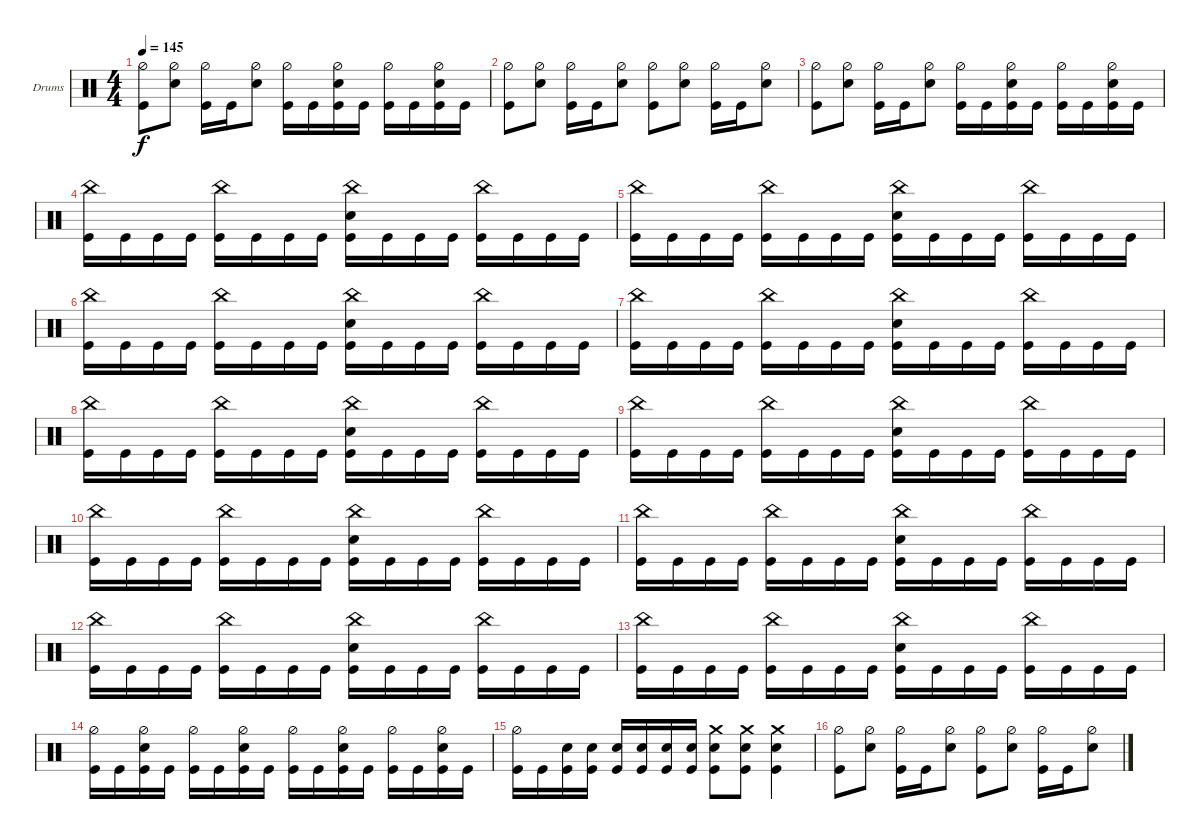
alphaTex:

\bracketExtendMode groupsimilarinstruments
\firstSystemTrackNameOrientation horizontal
\otherSystemsTrackNameOrientation horizontal
\track ("Drumkit" "Drums") {instrument percussion}
\staff {score}
\articulation defaults
\ts (4 4)
\tempo 145
\clef neutral
\ks c
("Kick (hit)" "Hi-Hat (half)").8{dy f} ("Snare (hit) 2" "Hi-Hat (half)").8 ("Kick (hit)" "Hi-Hat (half)").16 "Kick (hit)".16 ("Snare (hit) 2" "Hi-Hat (half)").8 ("Kick (hit)" "Hi-Hat (half)").16 "Kick (hit)".16 ("Snare (hit) 2" "Kick (hit)" "Hi-Hat (half)").16 "Kick (hit)".16 ("Kick (hit)" "Hi-Hat (half)").16 "Kick (hit)".16 ("Snare (hit) 2" "Kick (hit)" "Hi-Hat (half)").16 "Kick (hit)".16 |
("Kick (hit)" "Hi-Hat (half)").8 ("Snare (hit) 2" "Hi-Hat (half)").8 ("Kick (hit)" "Hi-Hat (half)").16 "Kick (hit)".16 ("Snare (hit) 2" "Hi-Hat (half)").8 ("Kick (hit)" "Hi-Hat (half)").8 ("Snare (hit) 2" "Hi-Hat (half)").8 ("Kick (hit)" "Hi-Hat (half)").16 "Kick (hit)".16 ("Snare (hit) 2" "Hi-Hat (half)").8 |
("Kick (hit)" "Hi-Hat (half)").8 ("Snare (hit) 2" "Hi-Hat (half)").8 ("Kick (hit)" "Hi-Hat (half)").16 "Kick (hit)".16 ("Snare (hit) 2" "Hi-Hat (half)").8 ("Kick (hit)" "Hi-Hat (half)").16 "Kick (hit)".16 ("Snare (hit) 2" "Kick (hit)" "Hi-Hat (half)").16 "Kick (hit)".16 ("Kick (hit)" "Hi-Hat (half)").16 "Kick (hit)".16 ("Snare (hit) 2" "Kick (hit)" "Hi-Hat (half)").16 "Kick (hit)".16 |
("Kick (hit)" "China (hit)").16 "Kick (hit)".16 "Kick (hit)".16 "Kick (hit)".16 ("Kick (hit)" "China (hit)").16 "Kick (hit)".16 "Kick (hit)".16 "Kick (hit)".16 ("Snare (hit) 2" "Kick (hit)" "China (hit)").16 "Kick (hit)".16 "Kick (hit)".16 "Kick (hit)".16 ("Kick (hit)" "China (hit)").16 "Kick (hit)".16 "Kick (hit)".16 "Kick (hit)".16 |
("Kick (hit)" "China (hit)").16 "Kick (hit)".16 "Kick (hit)".16 "Kick (hit)".16 ("Kick (hit)" "China (hit)").16 "Kick (hit)".16 "Kick (hit)".16 "Kick (hit)".16 ("Snare (hit) 2" "Kick (hit)" "China (hit)").16 "Kick (hit)".16 "Kick (hit)".16 "Kick (hit)".16 ("Kick (hit)" "China (hit)").16 "Kick (hit)".16 "Kick (hit)".16 "Kick (hit)".16 |
("Kick (hit)" "China (hit)").16 "Kick (hit)".16 "Kick (hit)".16 "Kick (hit)".16 ("Kick (hit)" "China (hit)").16 "Kick (hit)".16 "Kick (hit)".16 "Kick (hit)".16 ("Snare (hit) 2" "Kick (hit)" "China (hit)").16 "Kick (hit)".16 "Kick (hit)".16 "Kick (hit)".16 ("Kick (hit)" "China (hit)").16 "Kick (hit)".16 "Kick (hit)".16 "Kick (hit)".16 |
("Kick (hit)" "China (hit)").16 "Kick (hit)".16 "Kick (hit)".16 "Kick (hit)".16 ("Kick (hit)" "China (hit)").16 "Kick (hit)".16 "Kick (hit)".16 "Kick (hit)".16 ("Snare (hit) 2" "Kick (hit)" "China (hit)").16 "Kick (hit)".16 "Kick (hit)".16 "Kick (hit)".16 ("Kick (hit)" "China (hit)").16 "Kick (hit)".16 "Kick (hit)".16 "Kick (hit)".16 |
("Kick (hit)" "China (hit)").16 "Kick (hit)".16 "Kick (hit)".16 "Kick (hit)".16 ("Kick (hit)" "China (hit)").16 "Kick (hit)".16 "Kick (hit)".16 "Kick (hit)".16 ("Snare (hit) 2" "Kick (hit)" "China (hit)").16 "Kick (hit)".16 "Kick (hit)".16 "Kick (hit)".16 ("Kick (hit)" "China (hit)").16 "Kick (hit)".16 "Kick (hit)".16 "Kick (hit)".16 |
("Kick (hit)" "China (hit)").16 "Kick (hit)".16 "Kick (hit)".16 "Kick (hit)".16 ("Kick (hit)" "China (hit)").16 "Kick (hit)".16 "Kick (hit)".16 "Kick (hit)".16 ("Snare (hit) 2" "Kick (hit)" "China (hit)").16 "Kick (hit)".16 "Kick (hit)".16 "Kick (hit)".16 ("Kick (hit)" "China (hit)").16 "Kick (hit)".16 "Kick (hit)".16 "Kick (hit)".16 |
("Kick (hit)" "China (hit)").16 "Kick (hit)".16 "Kick (hit)".16 "Kick (hit)".16 ("Kick (hit)" "China (hit)").16 "Kick (hit)".16 "Kick (hit)".16 "Kick (hit)".16 ("Snare (hit) 2" "Kick (hit)" "China (hit)").16 "Kick (hit)".16 "Kick (hit)".16 "Kick (hit)".16 ("Kick (hit)" "China (hit)").16 "Kick (hit)".16 "Kick (hit)".16 "Kick (hit)".16 |
("Kick (hit)" "China (hit)").16 "Kick (hit)".16 "Kick (hit)".16 "Kick (hit)".16 ("Kick (hit)" "China (hit)").16 "Kick (hit)".16 "Kick (hit)".16 "Kick (hit)".16 ("Snare (hit) 2" "Kick (hit)" "China (hit)").16 "Kick (hit)".16 "Kick (hit)".16 "Kick (hit)".16 ("Kick (hit)" "China (hit)").16 "Kick (hit)".16 "Kick (hit)".16 "Kick (hit)".16 |
("Kick (hit)" "China (hit)").16 "Kick (hit)".16 "Kick (hit)".16 "Kick (hit)".16 ("Kick (hit)" "China (hit)").16 "Kick (hit)".16 "Kick (hit)".16 "Kick (hit)".16 ("Snare (hit) 2" "Kick (hit)" "China (hit)").16 "Kick (hit)".16 "Kick (hit)".16 "Kick (hit)".16 ("Kick (hit)" "China (hit)").16 "Kick (hit)".16 "Kick (hit)".16 "Kick (hit)".16 |
("Kick (hit)" "China (hit)").16 "Kick (hit)".16 "Kick (hit)".16 "Kick (hit)".16 ("Kick (hit)" "China (hit)").16 "Kick (hit)".16 "Kick (hit)".16 "Kick (hit)".16 ("Snare (hit) 2" "Kick (hit)" "China (hit)").16 "Kick (hit)".16 "Kick (hit)".16 "Kick (hit)".16 ("Kick (hit)" "China (hit)").16 "Kick (hit)".16 "Kick (hit)".16 "Kick (hit)".16 |
("Kick (hit)" "Hi-Hat (half)").16 "Kick (hit)".16 ("Snare (hit) 2" "Kick (hit)" "Hi-Hat (half)").16 "Kick (hit)".16 ("Kick (hit)" "Hi-Hat (half)").16 "Kick (hit)".16 ("Snare (hit) 2" "Kick (hit)" "Hi-Hat (half)").16 "Kick (hit)".16 ("Kick (hit)" "Hi-Hat (half)").16 "Kick (hit)".16 ("Snare (hit) 2" "Kick (hit)" "Hi-Hat (half)").16 "Kick (hit)".16 ("Kick (hit)" "Hi-Hat (half)").16 "Kick (hit)".16 ("Snare (hit) 2" "Kick (hit)" "Hi-Hat (half)").16 "Kick (hit)".16 |
("Kick (hit)" "Hi-Hat (half)").16 "Kick (hit)".16 ("Snare (hit) 2" "Kick (hit)").16 ("Snare (hit) 2" "Kick (hit)").16 ("Snare (hit) 2" "Kick (hit)").16 ("Snare (hit) 2" "Kick (hit)").16 ("Snare (hit) 2" "Kick (hit)").16 ("Snare (hit) 2" "Kick (hit)").16 ("Crash medium (hit)" "Snare (hit) 2" "Kick (hit)").8 ("Crash medium (hit)" "Snare (hit) 2" "Kick (hit)").8 ("Crash medium (hit)" "Snare (hit) 2" "Kick (hit)").4 |
("Kick (hit)" "Hi-Hat (half)").8 ("Snare (hit) 2" "Hi-Hat (half)").8 ("Kick (hit)" "Hi-Hat (half)").16 "Kick (hit)".16 ("Snare (hit) 2" "Hi-Hat (half)").8 ("Kick (hit)" "Hi-Hat (half)").8 ("Snare (hit) 2" "Hi-Hat (half)").8 ("Kick (hit)" "Hi-Hat (half)").16 "Kick (hit)".16 ("Snare (hit) 2" "Hi-Hat (half)").8
